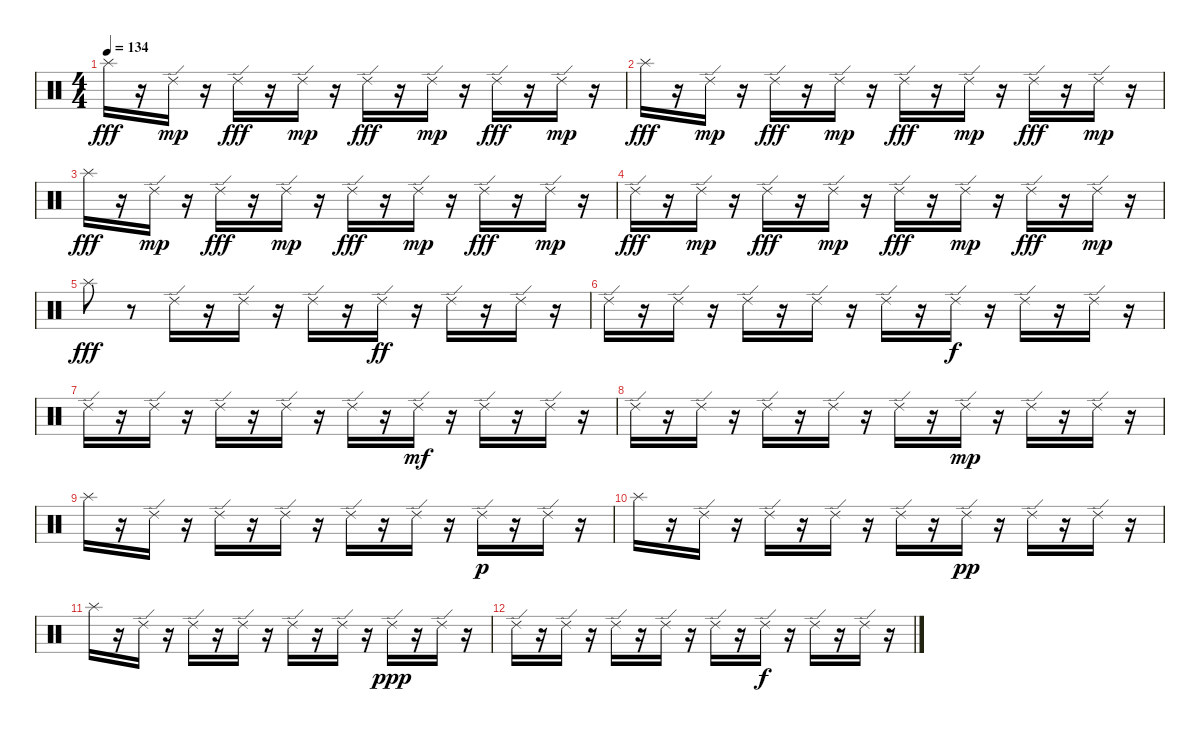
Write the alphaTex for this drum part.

\track "" {instrument percussion}
\staff {score}
\articulation defaults
\ts (4 4)
\tempo 134
\clef neutral
\ks c "Splash (hit)".16{dy fff}
r.16 "Ride (edge) 2".16{dy mp} r.16 "Ride (edge) 2".16{dy fff} r.16 "Ride (edge) 2".16{dy mp} r.16 "Ride (edge) 2".16{dy fff} r.16 "Ride (edge) 2".16{dy mp} r.16 "Ride (edge) 2".16{dy fff} r.16 "Ride (edge) 2".16{dy mp} r.16 |
"Splash (hit)".16{dy fff} r.16 "Ride (edge) 2".16{dy mp} r.16 "Ride (edge) 2".16{dy fff} r.16 "Ride (edge) 2".16{dy mp} r.16 "Ride (edge) 2".16{dy fff} r.16 "Ride (edge) 2".16{dy mp} r.16 "Ride (edge) 2".16{dy fff} r.16 "Ride (edge) 2".16{dy mp} r.16 |
"Splash (hit)".16{dy fff} r.16 "Ride (edge) 2".16{dy mp} r.16 "Ride (edge) 2".16{dy fff} r.16 "Ride (edge) 2".16{dy mp} r.16 "Ride (edge) 2".16{dy fff} r.16 "Ride (edge) 2".16{dy mp} r.16 "Ride (edge) 2".16{dy fff} r.16 "Ride (edge) 2".16{dy mp} r.16 |
"Ride (edge) 2".16{dy fff} r.16 "Ride (edge) 2".16{dy mp} r.16 "Ride (edge) 2".16{dy fff} r.16 "Ride (edge) 2".16{dy mp} r.16 "Ride (edge) 2".16{dy fff} r.16 "Ride (edge) 2".16{dy mp} r.16 "Ride (edge) 2".16{dy fff} r.16 "Ride (edge) 2".16{dy mp} r.16 |
"Splash (hit)".8{dy fff} r.8 "Ride (edge) 2".16 r.16 "Ride (edge) 2".16 r.16 "Ride (edge) 2".16 r.16 "Ride (edge) 2".16{dy ff} r.16 "Ride (edge) 2".16 r.16 "Ride (edge) 2".16 r.16 |
"Ride (edge) 2".16 r.16 "Ride (edge) 2".16 r.16 "Ride (edge) 2".16 r.16 "Ride (edge) 2".16 r.16 "Ride (edge) 2".16 r.16 "Ride (edge) 2".16{dy f} r.16 "Ride (edge) 2".16 r.16 "Ride (edge) 2".16 r.16 |
"Ride (edge) 2".16 r.16 "Ride (edge) 2".16 r.16 "Ride (edge) 2".16 r.16 "Ride (edge) 2".16 r.16 "Ride (edge) 2".16 r.16 "Ride (edge) 2".16{dy mf} r.16 "Ride (edge) 2".16 r.16 "Ride (edge) 2".16 r.16 |
"Ride (edge) 2".16 r.16 "Ride (edge) 2".16 r.16 "Ride (edge) 2".16 r.16 "Ride (edge) 2".16 r.16 "Ride (edge) 2".16 r.16 "Ride (edge) 2".16{dy mp} r.16 "Ride (edge) 2".16 r.16 "Ride (edge) 2".16 r.16 |
"Splash (hit)".16 r.16 "Ride (edge) 2".16 r.16 "Ride (edge) 2".16 r.16 "Ride (edge) 2".16 r.16 "Ride (edge) 2".16 r.16 "Ride (edge) 2".16 r.16 "Ride (edge) 2".16{dy p} r.16 "Ride (edge) 2".16 r.16 |
"Splash (hit)".16 r.16 "Ride (edge) 2".16 r.16 "Ride (edge) 2".16 r.16 "Ride (edge) 2".16 r.16 "Ride (edge) 2".16 r.16 "Ride (edge) 2".16{dy pp} r.16 "Ride (edge) 2".16 r.16 "Ride (edge) 2".16 r.16 |
"Splash (hit)".16 r.16 "Ride (edge) 2".16 r.16 "Ride (edge) 2".16 r.16 "Ride (edge) 2".16 r.16 "Ride (edge) 2".16 r.16 "Ride (edge) 2".16 r.16 "Ride (edge) 2".16{dy ppp} r.16 "Ride (edge) 2".16 r.16 |
"Ride (edge) 2".16 r.16 "Ride (edge) 2".16 r.16 "Ride (edge) 2".16 r.16 "Ride (edge) 2".16 r.16 "Ride (edge) 2".16 r.16 "Ride (edge) 2".16{dy f} r.16 "Ride (edge) 2".16 r.16 "Ride (edge) 2".16 r.16
